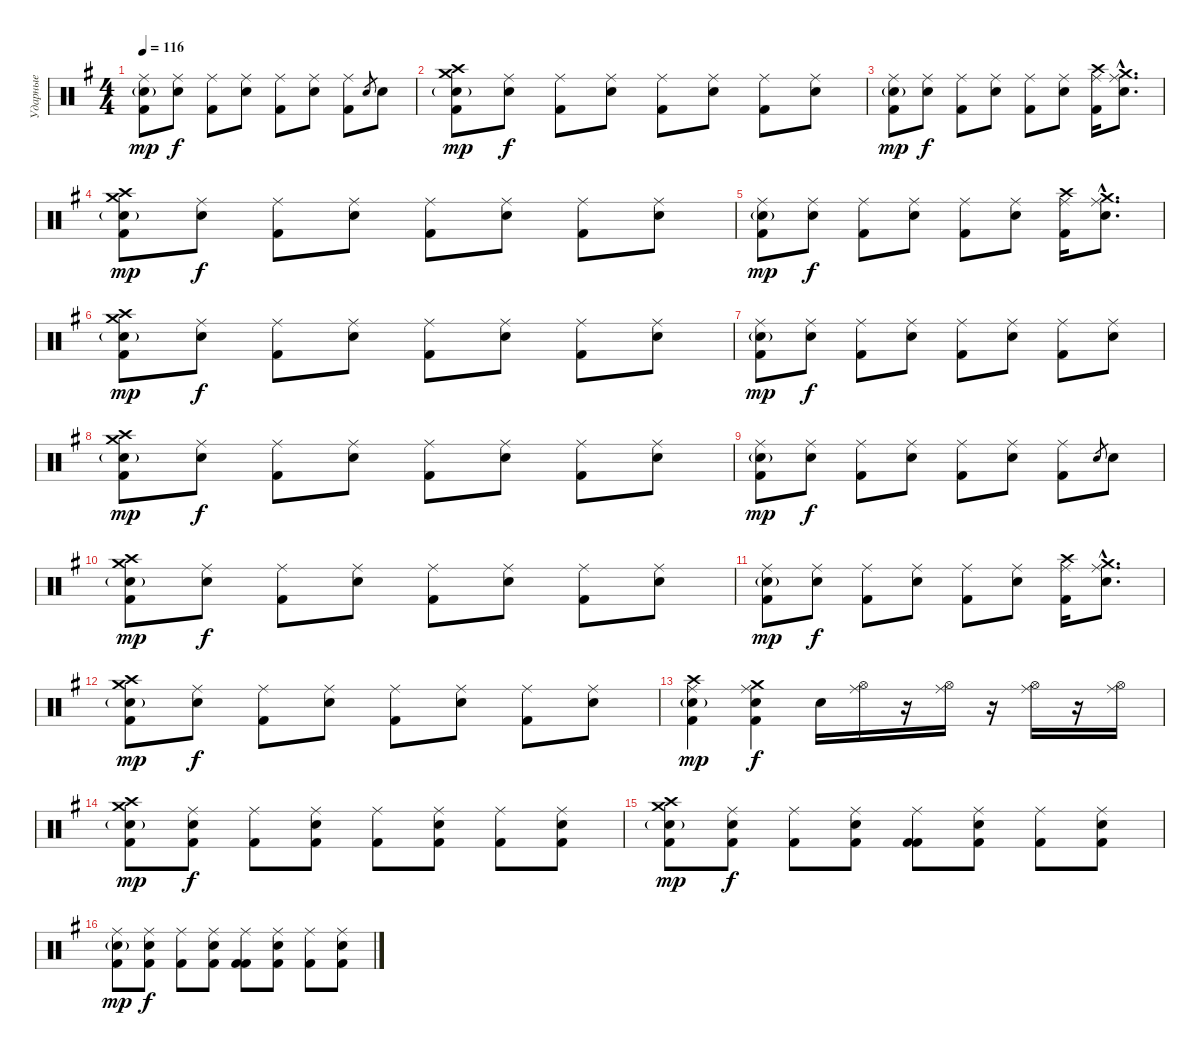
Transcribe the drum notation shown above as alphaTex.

\track ("Ударные" "Ударные") {instrument percussion}
\staff {score}
\articulation defaults
\ts (4 4)
\tempo 116
\clef neutral
\ks eminor
("Ride (middle)" "Electric Snare (hit)"{g} "Kick (hit) 2").8{dy mp} ("Ride (middle)" "Electric Snare (hit)").8{dy f} ("Ride (middle)" "Kick (hit) 2").8 ("Ride (middle)" "Electric Snare (hit)").8 ("Ride (middle)" "Kick (hit) 2").8 ("Ride (middle)" "Electric Snare (hit)").8 ("Ride (middle)" "Kick (hit) 2").8 "Electric Snare (hit)".8{gr} "Electric Snare (hit)".8 |
("Crash high (hit)" "Crash medium (hit)" "Electric Snare (hit)"{g} "Kick (hit) 2").8{dy mp} ("Ride (middle)" "Electric Snare (hit)").8{dy f} ("Ride (middle)" "Kick (hit) 2").8 ("Ride (middle)" "Electric Snare (hit)").8 ("Ride (middle)" "Kick (hit) 2").8 ("Ride (middle)" "Electric Snare (hit)").8 ("Ride (middle)" "Kick (hit) 2").8 ("Ride (middle)" "Electric Snare (hit)").8 |
("Ride (middle)" "Electric Snare (hit)"{g} "Kick (hit) 2").8{dy mp} ("Ride (middle)" "Electric Snare (hit)").8{dy f} ("Ride (middle)" "Kick (hit) 2").8 ("Ride (middle)" "Electric Snare (hit)").8 ("Ride (middle)" "Kick (hit) 2").8 ("Ride (middle)" "Electric Snare (hit)").8 ("Ride (middle)" "Crash high (hit)" "Kick (hit) 2").16 ("Ride (middle)"{hac} "Crash medium (hit)"{hac} "Electric Snare (hit)"{hac}).8{d} |
("Crash high (hit)" "Crash medium (hit)" "Electric Snare (hit)"{g} "Kick (hit) 2").8{dy mp} ("Ride (middle)" "Electric Snare (hit)").8{dy f} ("Ride (middle)" "Kick (hit) 2").8 ("Ride (middle)" "Electric Snare (hit)").8 ("Ride (middle)" "Kick (hit) 2").8 ("Ride (middle)" "Electric Snare (hit)").8 ("Ride (middle)" "Kick (hit) 2").8 ("Ride (middle)" "Electric Snare (hit)").8 |
("Ride (middle)" "Electric Snare (hit)"{g} "Kick (hit) 2").8{dy mp} ("Ride (middle)" "Electric Snare (hit)").8{dy f} ("Ride (middle)" "Kick (hit) 2").8 ("Ride (middle)" "Electric Snare (hit)").8 ("Ride (middle)" "Kick (hit) 2").8 ("Ride (middle)" "Electric Snare (hit)").8 ("Ride (middle)" "Crash high (hit)" "Kick (hit) 2").16 ("Ride (middle)"{hac} "Crash medium (hit)"{hac} "Electric Snare (hit)"{hac}).8{d} |
("Crash high (hit)" "Crash medium (hit)" "Electric Snare (hit)"{g} "Kick (hit) 2").8{dy mp} ("Ride (middle)" "Electric Snare (hit)").8{dy f} ("Ride (middle)" "Kick (hit) 2").8 ("Ride (middle)" "Electric Snare (hit)").8 ("Ride (middle)" "Kick (hit) 2").8 ("Ride (middle)" "Electric Snare (hit)").8 ("Ride (middle)" "Kick (hit) 2").8 ("Ride (middle)" "Electric Snare (hit)").8 |
("Ride (middle)" "Electric Snare (hit)"{g} "Kick (hit) 2").8{dy mp} ("Ride (middle)" "Electric Snare (hit)").8{dy f} ("Ride (middle)" "Kick (hit) 2").8 ("Ride (middle)" "Electric Snare (hit)").8 ("Ride (middle)" "Kick (hit) 2").8 ("Ride (middle)" "Electric Snare (hit)").8 ("Ride (middle)" "Kick (hit) 2").8 ("Ride (middle)" "Electric Snare (hit)").8 |
("Crash high (hit)" "Crash medium (hit)" "Electric Snare (hit)"{g} "Kick (hit) 2").8{dy mp} ("Ride (middle)" "Electric Snare (hit)").8{dy f} ("Ride (middle)" "Kick (hit) 2").8 ("Ride (middle)" "Electric Snare (hit)").8 ("Ride (middle)" "Kick (hit) 2").8 ("Ride (middle)" "Electric Snare (hit)").8 ("Ride (middle)" "Kick (hit) 2").8 ("Ride (middle)" "Electric Snare (hit)").8 |
("Ride (middle)" "Electric Snare (hit)"{g} "Kick (hit) 2").8{dy mp} ("Ride (middle)" "Electric Snare (hit)").8{dy f} ("Ride (middle)" "Kick (hit) 2").8 ("Ride (middle)" "Electric Snare (hit)").8 ("Ride (middle)" "Kick (hit) 2").8 ("Ride (middle)" "Electric Snare (hit)").8 ("Ride (middle)" "Kick (hit) 2").8 "Electric Snare (hit)".8{gr} "Electric Snare (hit)".8 |
("Crash high (hit)" "Crash medium (hit)" "Electric Snare (hit)"{g} "Kick (hit) 2").8{dy mp} ("Ride (middle)" "Electric Snare (hit)").8{dy f} ("Ride (middle)" "Kick (hit) 2").8 ("Ride (middle)" "Electric Snare (hit)").8 ("Ride (middle)" "Kick (hit) 2").8 ("Ride (middle)" "Electric Snare (hit)").8 ("Ride (middle)" "Kick (hit) 2").8 ("Ride (middle)" "Electric Snare (hit)").8 |
("Ride (middle)" "Electric Snare (hit)"{g} "Kick (hit) 2").8{dy mp} ("Ride (middle)" "Electric Snare (hit)").8{dy f} ("Ride (middle)" "Kick (hit) 2").8 ("Ride (middle)" "Electric Snare (hit)").8 ("Ride (middle)" "Kick (hit) 2").8 ("Ride (middle)" "Electric Snare (hit)").8 ("Ride (middle)" "Crash high (hit)" "Kick (hit) 2").16 ("Ride (middle)"{hac} "Crash medium (hit)"{hac} "Electric Snare (hit)"{hac}).8{d} |
("Crash high (hit)" "Crash medium (hit)" "Electric Snare (hit)"{g} "Kick (hit) 2").8{dy mp} ("Ride (middle)" "Electric Snare (hit)").8{dy f} ("Ride (middle)" "Kick (hit) 2").8 ("Ride (middle)" "Electric Snare (hit)").8 ("Ride (middle)" "Kick (hit) 2").8 ("Ride (middle)" "Electric Snare (hit)").8 ("Ride (middle)" "Kick (hit) 2").8 ("Ride (middle)" "Electric Snare (hit)").8 |
("Ride (middle)" "Crash high (hit)" "Electric Snare (hit)"{g} "Kick (hit) 2").4{dy mp} ("Ride (middle)" "Crash medium (hit)" "Electric Snare (hit)" "Kick (hit) 2").4{dy f} "Electric Snare (hit)".16 ("Ride (middle)" "Hi-Hat (open)").16 r.16 ("Ride (middle)" "Hi-Hat (open)").16 r.16 ("Ride (middle)" "Hi-Hat (open)").16 r.16 ("Ride (middle)" "Hi-Hat (open)").16 |
("Crash high (hit)" "Crash medium (hit)" "Electric Snare (hit)"{g} "Kick (hit) 2").8{dy mp} ("Ride (middle)" "Electric Snare (hit)" "Kick (hit) 2").8{dy f} ("Ride (middle)" "Kick (hit) 2").8 ("Ride (middle)" "Electric Snare (hit)" "Kick (hit) 2").8 ("Ride (middle)" "Kick (hit) 2").8 ("Ride (middle)" "Electric Snare (hit)" "Kick (hit) 2").8 ("Ride (middle)" "Kick (hit) 2").8 ("Ride (middle)" "Electric Snare (hit)" "Kick (hit) 2").8 |
("Crash high (hit)" "Crash medium (hit)" "Electric Snare (hit)"{g} "Kick (hit) 2").8{dy mp} ("Ride (middle)" "Electric Snare (hit)" "Kick (hit) 2").8{dy f} ("Ride (middle)" "Kick (hit) 2").8 ("Ride (middle)" "Electric Snare (hit)" "Kick (hit) 2").8 ("Ride (middle)" "Kick (hit) 2" "Kick (hit) 2").8 ("Ride (middle)" "Electric Snare (hit)" "Kick (hit) 2").8 ("Ride (middle)" "Kick (hit) 2").8 ("Ride (middle)" "Electric Snare (hit)" "Kick (hit) 2").8 |
("Ride (middle)" "Electric Snare (hit)"{g} "Kick (hit) 2").8{dy mp} ("Ride (middle)" "Electric Snare (hit)" "Kick (hit) 2").8{dy f} ("Ride (middle)" "Kick (hit) 2").8 ("Ride (middle)" "Electric Snare (hit)" "Kick (hit) 2").8 ("Ride (middle)" "Kick (hit) 2" "Kick (hit) 2").8 ("Ride (middle)" "Electric Snare (hit)" "Kick (hit) 2").8 ("Ride (middle)" "Kick (hit) 2").8 ("Ride (middle)" "Electric Snare (hit)" "Kick (hit) 2").8
